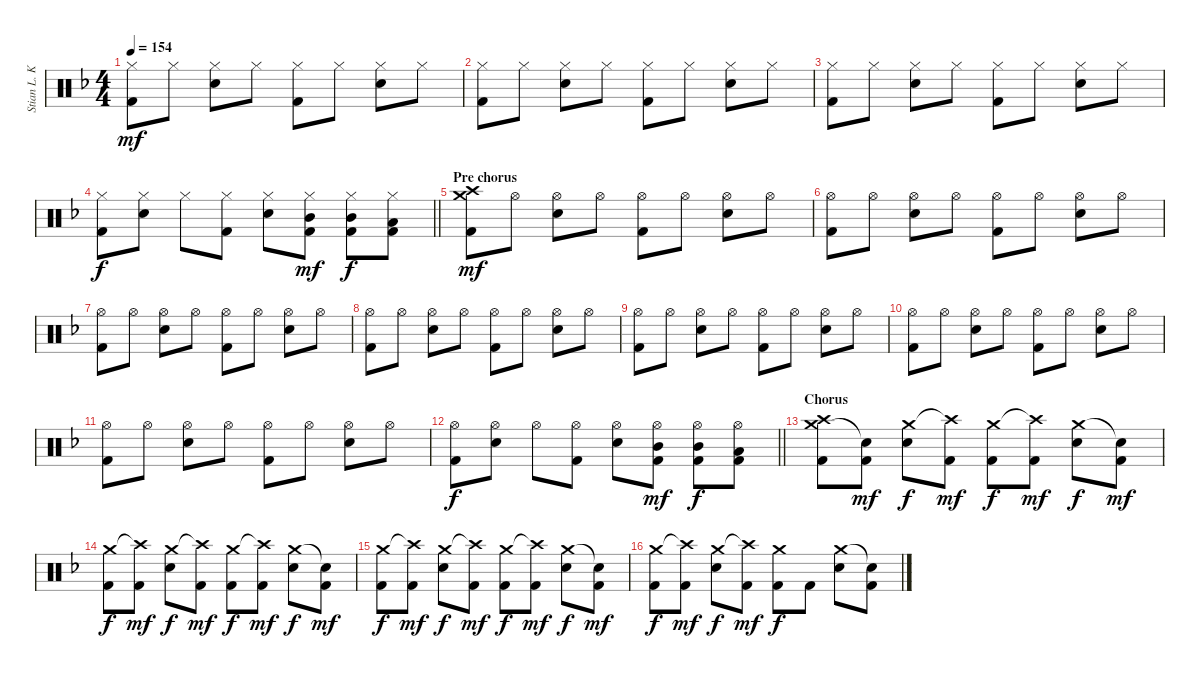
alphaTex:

\track ("Stian L. Kristoffersen" "Stian L. K") {instrument percussion}
\staff {score}
\articulation defaults
\ts (4 4)
\tempo 154
\clef neutral
\ks f
("Hi-Hat (closed)" "Kick (hit) 2").8{dy mf} "Hi-Hat (closed)".8 ("Hi-Hat (closed)" "Snare (hit) 2").8 "Hi-Hat (closed)".8 ("Hi-Hat (closed)" "Kick (hit) 2").8 "Hi-Hat (closed)".8 ("Hi-Hat (closed)" "Snare (hit) 2").8 "Hi-Hat (closed)".8 |
("Hi-Hat (closed)" "Kick (hit) 2").8 "Hi-Hat (closed)".8 ("Hi-Hat (closed)" "Snare (hit) 2").8 "Hi-Hat (closed)".8 ("Hi-Hat (closed)" "Kick (hit) 2").8 "Hi-Hat (closed)".8 ("Hi-Hat (closed)" "Snare (hit) 2").8 "Hi-Hat (closed)".8 |
("Hi-Hat (closed)" "Kick (hit) 2").8 "Hi-Hat (closed)".8 ("Hi-Hat (closed)" "Snare (hit) 2").8 "Hi-Hat (closed)".8 ("Hi-Hat (closed)" "Kick (hit) 2").8 "Hi-Hat (closed)".8 ("Hi-Hat (closed)" "Snare (hit) 2").8 "Hi-Hat (closed)".8 |
\barLineRight lightlight
("Hi-Hat (closed)" "Kick (hit) 2").8{dy f} ("Hi-Hat (closed)" "Snare (hit) 2").8 "Hi-Hat (closed)".8 ("Hi-Hat (closed)" "Kick (hit) 2").8 ("Hi-Hat (closed)" "Snare (hit) 2").8 ("Hi-Hat (closed)" "Mid Tom (hit)" "Kick (hit) 2").8{dy mf} ("Hi-Hat (closed)" "Mid Tom (hit)" "Kick (hit) 2").8{dy f} ("Hi-Hat (closed)" "Low Tom (hit)" "Kick (hit) 2").8 |
\section ("" "Pre chorus")
("Crash medium (hit)" "Crash high (hit)" "Kick (hit) 2").8{dy mf} "Hi-Hat (open)".8 ("Hi-Hat (open)" "Snare (hit) 2").8 "Hi-Hat (open)".8 ("Hi-Hat (open)" "Kick (hit) 2").8 "Hi-Hat (open)".8 ("Hi-Hat (open)" "Snare (hit) 2").8 "Hi-Hat (open)".8 |
("Hi-Hat (open)" "Kick (hit) 2").8 "Hi-Hat (open)".8 ("Hi-Hat (open)" "Snare (hit) 2").8 "Hi-Hat (open)".8 ("Hi-Hat (open)" "Kick (hit) 2").8 "Hi-Hat (open)".8 ("Hi-Hat (open)" "Snare (hit) 2").8 "Hi-Hat (open)".8 |
("Hi-Hat (open)" "Kick (hit) 2").8 "Hi-Hat (open)".8 ("Hi-Hat (open)" "Snare (hit) 2").8 "Hi-Hat (open)".8 ("Hi-Hat (open)" "Kick (hit) 2").8 "Hi-Hat (open)".8 ("Hi-Hat (open)" "Snare (hit) 2").8 "Hi-Hat (open)".8 |
("Hi-Hat (open)" "Kick (hit) 2").8 "Hi-Hat (open)".8 ("Hi-Hat (open)" "Snare (hit) 2").8 "Hi-Hat (open)".8 ("Hi-Hat (open)" "Kick (hit) 2").8 "Hi-Hat (open)".8 ("Hi-Hat (open)" "Snare (hit) 2").8 "Hi-Hat (open)".8 |
("Hi-Hat (open)" "Kick (hit) 2").8 "Hi-Hat (open)".8 ("Hi-Hat (open)" "Snare (hit) 2").8 "Hi-Hat (open)".8 ("Hi-Hat (open)" "Kick (hit) 2").8 "Hi-Hat (open)".8 ("Hi-Hat (open)" "Snare (hit) 2").8 "Hi-Hat (open)".8 |
("Hi-Hat (open)" "Kick (hit) 2").8 "Hi-Hat (open)".8 ("Hi-Hat (open)" "Snare (hit) 2").8 "Hi-Hat (open)".8 ("Hi-Hat (open)" "Kick (hit) 2").8 "Hi-Hat (open)".8 ("Hi-Hat (open)" "Snare (hit) 2").8 "Hi-Hat (open)".8 |
("Hi-Hat (open)" "Kick (hit) 2").8 "Hi-Hat (open)".8 ("Hi-Hat (open)" "Snare (hit) 2").8 "Hi-Hat (open)".8 ("Hi-Hat (open)" "Kick (hit) 2").8 "Hi-Hat (open)".8 ("Hi-Hat (open)" "Snare (hit) 2").8 "Hi-Hat (open)".8 |
\barLineRight lightlight
("Hi-Hat (open)" "Kick (hit) 2").8{dy f} ("Hi-Hat (open)" "Snare (hit) 2").8 "Hi-Hat (open)".8 ("Hi-Hat (open)" "Kick (hit) 2").8 ("Hi-Hat (open)" "Snare (hit) 2").8 ("Hi-Hat (open)" "Mid Tom (hit)" "Kick (hit) 2").8{dy mf} ("Hi-Hat (open)" "Mid Tom (hit)" "Kick (hit) 2").8{dy f} ("Hi-Hat (open)" "Low Tom (hit)" "Kick (hit) 2").8 |
\section ("" "Chorus")
("Crash medium (hit)" "Crash high (hit)" "Kick (hit) 2").8 ("Snare (hit)"{t} "Kick (hit) 2").8{dy mf} ("Crash medium (hit)" "Snare (hit) 2").8{dy f} ("Crash high (hit)"{t} "Kick (hit) 2").8{dy mf} ("Crash medium (hit)" "Kick (hit) 2").8{dy f} ("Crash high (hit)"{t} "Kick (hit) 2").8{dy mf} ("Crash medium (hit)" "Snare (hit) 2").8{dy f} ("Snare (hit)"{t} "Kick (hit) 2").8{dy mf} |
("Crash medium (hit)" "Kick (hit) 2").8{dy f} ("Crash high (hit)"{t} "Kick (hit) 2").8{dy mf} ("Crash medium (hit)" "Snare (hit) 2").8{dy f} ("Crash high (hit)"{t} "Kick (hit) 2").8{dy mf} ("Crash medium (hit)" "Kick (hit) 2").8{dy f} ("Crash high (hit)"{t} "Kick (hit) 2").8{dy mf} ("Crash medium (hit)" "Snare (hit) 2").8{dy f} ("Snare (hit)"{t} "Kick (hit) 2").8{dy mf} |
("Crash medium (hit)" "Kick (hit) 2").8{dy f} ("Crash high (hit)"{t} "Kick (hit) 2").8{dy mf} ("Crash medium (hit)" "Snare (hit) 2").8{dy f} ("Crash high (hit)"{t} "Kick (hit) 2").8{dy mf} ("Crash medium (hit)" "Kick (hit) 2").8{dy f} ("Crash high (hit)"{t} "Kick (hit) 2").8{dy mf} ("Crash medium (hit)" "Snare (hit) 2").8{dy f} ("Snare (hit)"{t} "Kick (hit) 2").8{dy mf} |
("Crash medium (hit)" "Kick (hit) 2").8{dy f} ("Crash high (hit)"{t} "Kick (hit) 2").8{dy mf} ("Crash medium (hit)" "Snare (hit) 2").8{dy f} ("Crash high (hit)"{t} "Kick (hit) 2").8{dy mf} ("Crash medium (hit)" "Kick (hit) 2").8{dy f} "Kick (hit) 2".8 ("Crash medium (hit)" "Snare (hit) 2").8 ("Snare (hit)"{t} "Kick (hit) 2").8
